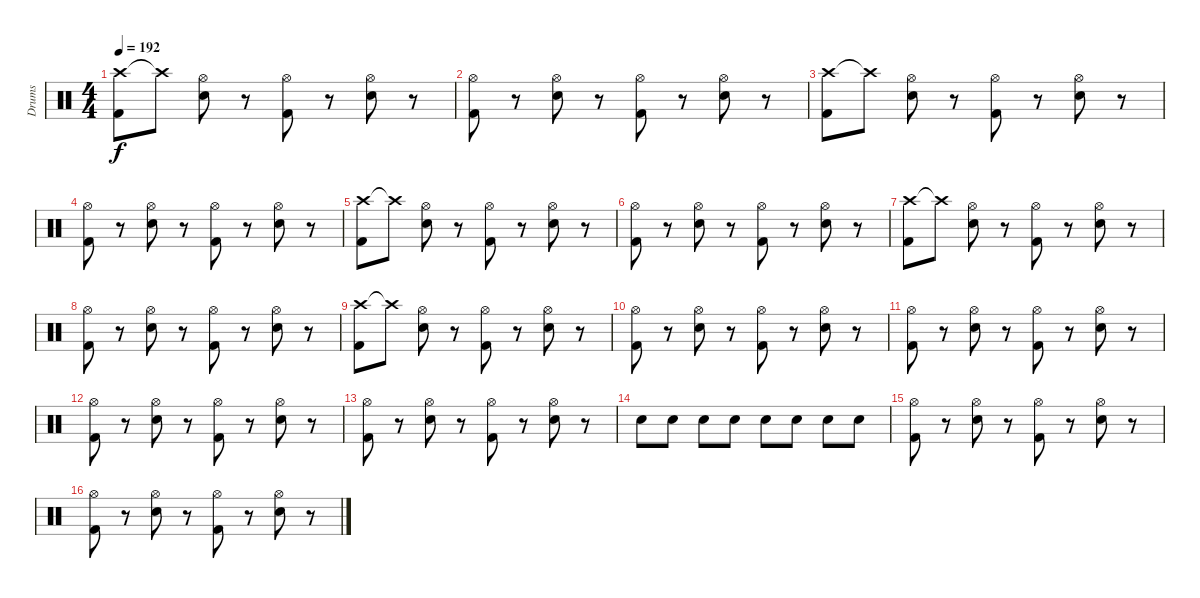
\track ("Drums" "Drums") {instrument percussion}
\staff {score}
\articulation defaults
\ts (4 4)
\tempo 192
\clef neutral
\ks c
("Crash high (hit)" "Kick (hit) 2").8{dy f} "Crash high (hit)"{t}.8 ("Hi-Hat (open)" "Snare (hit) 2").8 r.8 ("Hi-Hat (open)" "Kick (hit) 2").8 r.8 ("Hi-Hat (open)" "Snare (hit) 2").8 r.8 |
("Hi-Hat (open)" "Kick (hit) 2").8 r.8 ("Hi-Hat (open)" "Snare (hit) 2").8 r.8 ("Hi-Hat (open)" "Kick (hit) 2").8 r.8 ("Hi-Hat (open)" "Snare (hit) 2").8 r.8 |
("Crash high (hit)" "Kick (hit) 2").8 "Crash high (hit)"{t}.8 ("Hi-Hat (open)" "Snare (hit) 2").8 r.8 ("Hi-Hat (open)" "Kick (hit) 2").8 r.8 ("Hi-Hat (open)" "Snare (hit) 2").8 r.8 |
("Hi-Hat (open)" "Kick (hit) 2").8 r.8 ("Hi-Hat (open)" "Snare (hit) 2").8 r.8 ("Hi-Hat (open)" "Kick (hit) 2").8 r.8 ("Hi-Hat (open)" "Snare (hit) 2").8 r.8 |
("Crash high (hit)" "Kick (hit) 2").8 "Crash high (hit)"{t}.8 ("Hi-Hat (open)" "Snare (hit) 2").8 r.8 ("Hi-Hat (open)" "Kick (hit) 2").8 r.8 ("Hi-Hat (open)" "Snare (hit) 2").8 r.8 |
("Hi-Hat (open)" "Kick (hit) 2").8 r.8 ("Hi-Hat (open)" "Snare (hit) 2").8 r.8 ("Hi-Hat (open)" "Kick (hit) 2").8 r.8 ("Hi-Hat (open)" "Snare (hit) 2").8 r.8 |
("Crash high (hit)" "Kick (hit) 2").8 "Crash high (hit)"{t}.8 ("Hi-Hat (open)" "Snare (hit) 2").8 r.8 ("Hi-Hat (open)" "Kick (hit) 2").8 r.8 ("Hi-Hat (open)" "Snare (hit) 2").8 r.8 |
("Hi-Hat (open)" "Kick (hit) 2").8 r.8 ("Hi-Hat (open)" "Snare (hit) 2").8 r.8 ("Hi-Hat (open)" "Kick (hit) 2").8 r.8 ("Hi-Hat (open)" "Snare (hit) 2").8 r.8 |
("Crash high (hit)" "Kick (hit) 2").8 "Crash high (hit)"{t}.8 ("Hi-Hat (open)" "Snare (hit) 2").8 r.8 ("Hi-Hat (open)" "Kick (hit) 2").8 r.8 ("Hi-Hat (open)" "Snare (hit) 2").8 r.8 |
("Hi-Hat (open)" "Kick (hit) 2").8 r.8 ("Hi-Hat (open)" "Snare (hit) 2").8 r.8 ("Hi-Hat (open)" "Kick (hit) 2").8 r.8 ("Hi-Hat (open)" "Snare (hit) 2").8 r.8 |
("Hi-Hat (open)" "Kick (hit) 2").8 r.8 ("Hi-Hat (open)" "Snare (hit) 2").8 r.8 ("Hi-Hat (open)" "Kick (hit) 2").8 r.8 ("Hi-Hat (open)" "Snare (hit) 2").8 r.8 |
("Hi-Hat (open)" "Kick (hit) 2").8 r.8 ("Hi-Hat (open)" "Snare (hit) 2").8 r.8 ("Hi-Hat (open)" "Kick (hit) 2").8 r.8 ("Hi-Hat (open)" "Snare (hit) 2").8 r.8 |
("Hi-Hat (open)" "Kick (hit) 2").8 r.8 ("Hi-Hat (open)" "Snare (hit) 2").8 r.8 ("Hi-Hat (open)" "Kick (hit) 2").8 r.8 ("Hi-Hat (open)" "Snare (hit) 2").8 r.8 |
"Snare (hit) 2".8 "Snare (hit) 2".8 "Snare (hit) 2".8 "Snare (hit) 2".8 "Snare (hit) 2".8 "Snare (hit) 2".8 "Snare (hit) 2".8 "Snare (hit) 2".8 |
("Hi-Hat (open)" "Kick (hit) 2").8 r.8 ("Hi-Hat (open)" "Snare (hit) 2").8 r.8 ("Hi-Hat (open)" "Kick (hit) 2").8 r.8 ("Hi-Hat (open)" "Snare (hit) 2").8 r.8 |
("Hi-Hat (open)" "Kick (hit) 2").8 r.8 ("Hi-Hat (open)" "Snare (hit) 2").8 r.8 ("Hi-Hat (open)" "Kick (hit) 2").8 r.8 ("Hi-Hat (open)" "Snare (hit) 2").8 r.8
